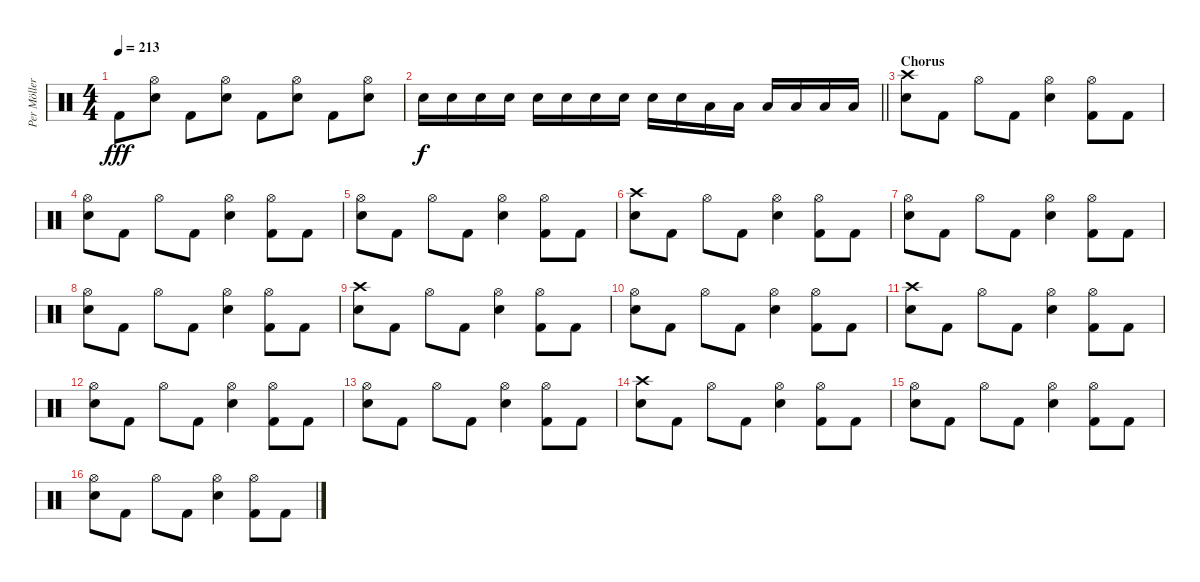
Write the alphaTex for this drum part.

\track ("Per Möller Jensen" "Per Möller") {instrument percussion}
\staff {score}
\articulation defaults
\ts (4 4)
\tempo 213
\clef neutral
\ks c "Kick (hit) 2".8{dy fff}
("Hi-Hat (open)" "Electric Snare (hit)").8 "Kick (hit) 2".8 ("Hi-Hat (open)" "Electric Snare (hit)").8 "Kick (hit) 2".8 ("Hi-Hat (open)" "Electric Snare (hit)").8 "Kick (hit) 2".8 ("Hi-Hat (open)" "Electric Snare (hit)").8 |
\barLineRight lightlight "Electric Snare (hit)".16{dy f} "Electric Snare (hit)".16 "Electric Snare (hit)".16 "Electric Snare (hit)".16 "Electric Snare (hit)".16 "Electric Snare (hit)".16 "Electric Snare (hit)".16 "Electric Snare (hit)".16 "Electric Snare (hit)".16 "Electric Snare (hit)".16 "Low Tom (hit)".16 "Low Tom (hit)".16 "Low Tom (hit)".16 "Low Tom (hit)".16 "Low Tom (hit)".16 "Low Tom (hit)".16
|
\section ("" "Chorus")
("Crash high (hit)" "Electric Snare (hit)").8 "Kick (hit) 2".8 "Hi-Hat (open)".8 "Kick (hit) 2".8 ("Hi-Hat (open)" "Electric Snare (hit)").4 ("Hi-Hat (open)" "Kick (hit) 2").8 "Kick (hit) 2".8 |
("Hi-Hat (open)" "Electric Snare (hit)").8 "Kick (hit) 2".8 "Hi-Hat (open)".8 "Kick (hit) 2".8 ("Hi-Hat (open)" "Electric Snare (hit)").4 ("Hi-Hat (open)" "Kick (hit) 2").8 "Kick (hit) 2".8 |
("Hi-Hat (open)" "Electric Snare (hit)").8 "Kick (hit) 2".8 "Hi-Hat (open)".8 "Kick (hit) 2".8 ("Hi-Hat (open)" "Electric Snare (hit)").4 ("Hi-Hat (open)" "Kick (hit) 2").8 "Kick (hit) 2".8 |
("Crash high (hit)" "Electric Snare (hit)").8 "Kick (hit) 2".8 "Hi-Hat (open)".8 "Kick (hit) 2".8 ("Hi-Hat (open)" "Electric Snare (hit)").4 ("Hi-Hat (open)" "Kick (hit) 2").8 "Kick (hit) 2".8 |
("Hi-Hat (open)" "Electric Snare (hit)").8 "Kick (hit) 2".8 "Hi-Hat (open)".8 "Kick (hit) 2".8 ("Hi-Hat (open)" "Electric Snare (hit)").4 ("Hi-Hat (open)" "Kick (hit) 2").8 "Kick (hit) 2".8 |
("Hi-Hat (open)" "Electric Snare (hit)").8 "Kick (hit) 2".8 "Hi-Hat (open)".8 "Kick (hit) 2".8 ("Hi-Hat (open)" "Electric Snare (hit)").4 ("Hi-Hat (open)" "Kick (hit) 2").8 "Kick (hit) 2".8 |
("Crash high (hit)" "Electric Snare (hit)").8 "Kick (hit) 2".8 "Hi-Hat (open)".8 "Kick (hit) 2".8 ("Hi-Hat (open)" "Electric Snare (hit)").4 ("Hi-Hat (open)" "Kick (hit) 2").8 "Kick (hit) 2".8 |
("Hi-Hat (open)" "Electric Snare (hit)").8 "Kick (hit) 2".8 "Hi-Hat (open)".8 "Kick (hit) 2".8 ("Hi-Hat (open)" "Electric Snare (hit)").4 ("Hi-Hat (open)" "Kick (hit) 2").8 "Kick (hit) 2".8 |
("Crash high (hit)" "Electric Snare (hit)").8 "Kick (hit) 2".8 "Hi-Hat (open)".8 "Kick (hit) 2".8 ("Hi-Hat (open)" "Electric Snare (hit)").4 ("Hi-Hat (open)" "Kick (hit) 2").8 "Kick (hit) 2".8 |
("Hi-Hat (open)" "Electric Snare (hit)").8 "Kick (hit) 2".8 "Hi-Hat (open)".8 "Kick (hit) 2".8 ("Hi-Hat (open)" "Electric Snare (hit)").4 ("Hi-Hat (open)" "Kick (hit) 2").8 "Kick (hit) 2".8 |
("Hi-Hat (open)" "Electric Snare (hit)").8 "Kick (hit) 2".8 "Hi-Hat (open)".8 "Kick (hit) 2".8 ("Hi-Hat (open)" "Electric Snare (hit)").4 ("Hi-Hat (open)" "Kick (hit) 2").8 "Kick (hit) 2".8 |
("Crash high (hit)" "Electric Snare (hit)").8 "Kick (hit) 2".8 "Hi-Hat (open)".8 "Kick (hit) 2".8 ("Hi-Hat (open)" "Electric Snare (hit)").4 ("Hi-Hat (open)" "Kick (hit) 2").8 "Kick (hit) 2".8 |
("Hi-Hat (open)" "Electric Snare (hit)").8 "Kick (hit) 2".8 "Hi-Hat (open)".8 "Kick (hit) 2".8 ("Hi-Hat (open)" "Electric Snare (hit)").4 ("Hi-Hat (open)" "Kick (hit) 2").8 "Kick (hit) 2".8 |
("Hi-Hat (open)" "Electric Snare (hit)").8 "Kick (hit) 2".8 "Hi-Hat (open)".8 "Kick (hit) 2".8 ("Hi-Hat (open)" "Electric Snare (hit)").4 ("Hi-Hat (open)" "Kick (hit) 2").8 "Kick (hit) 2".8
